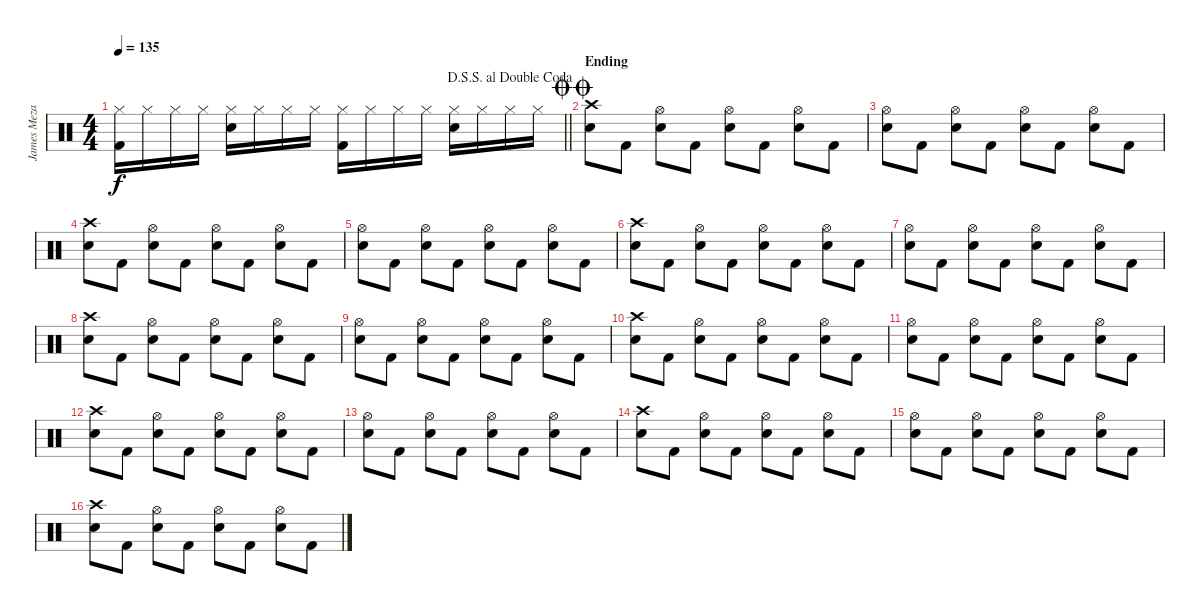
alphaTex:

\track ("James Meza - Drums" "James Meza") {instrument percussion}
\staff {score}
\articulation defaults
\ts (4 4)
\jump dalsegnosegnoaldoublecoda
\tempo 135
\clef neutral
\barLineRight lightlight
\ks c
("Hi-Hat (closed)" "Kick (hit) 2").16{dy f} "Hi-Hat (closed)".16 "Hi-Hat (closed)".16 "Hi-Hat (closed)".16 ("Hi-Hat (closed)" "Electric Snare (hit)").16 "Hi-Hat (closed)".16 "Hi-Hat (closed)".16 "Hi-Hat (closed)".16 ("Hi-Hat (closed)" "Kick (hit) 2").16 "Hi-Hat (closed)".16 "Hi-Hat (closed)".16 "Hi-Hat (closed)".16 ("Hi-Hat (closed)" "Electric Snare (hit)").16 "Hi-Hat (closed)".16 "Hi-Hat (closed)".16 "Hi-Hat (closed)".16 |
\section ("" "Ending")
\jump doublecoda
("Crash high (hit)" "Electric Snare (hit)").8 "Kick (hit) 2".8 ("Hi-Hat (open)" "Electric Snare (hit)").8 "Kick (hit) 2".8 ("Hi-Hat (open)" "Electric Snare (hit)").8 "Kick (hit) 2".8 ("Hi-Hat (open)" "Electric Snare (hit)").8 "Kick (hit) 2".8 |
("Hi-Hat (open)" "Electric Snare (hit)").8 "Kick (hit) 2".8 ("Hi-Hat (open)" "Electric Snare (hit)").8 "Kick (hit) 2".8 ("Hi-Hat (open)" "Electric Snare (hit)").8 "Kick (hit) 2".8 ("Hi-Hat (open)" "Electric Snare (hit)").8 "Kick (hit) 2".8 |
("Crash high (hit)" "Electric Snare (hit)").8 "Kick (hit) 2".8 ("Hi-Hat (open)" "Electric Snare (hit)").8 "Kick (hit) 2".8 ("Hi-Hat (open)" "Electric Snare (hit)").8 "Kick (hit) 2".8 ("Hi-Hat (open)" "Electric Snare (hit)").8 "Kick (hit) 2".8 |
("Hi-Hat (open)" "Electric Snare (hit)").8 "Kick (hit) 2".8 ("Hi-Hat (open)" "Electric Snare (hit)").8 "Kick (hit) 2".8 ("Hi-Hat (open)" "Electric Snare (hit)").8 "Kick (hit) 2".8 ("Hi-Hat (open)" "Electric Snare (hit)").8 "Kick (hit) 2".8 |
("Crash high (hit)" "Electric Snare (hit)").8 "Kick (hit) 2".8 ("Hi-Hat (open)" "Electric Snare (hit)").8 "Kick (hit) 2".8 ("Hi-Hat (open)" "Electric Snare (hit)").8 "Kick (hit) 2".8 ("Hi-Hat (open)" "Electric Snare (hit)").8 "Kick (hit) 2".8 |
("Hi-Hat (open)" "Electric Snare (hit)").8 "Kick (hit) 2".8 ("Hi-Hat (open)" "Electric Snare (hit)").8 "Kick (hit) 2".8 ("Hi-Hat (open)" "Electric Snare (hit)").8 "Kick (hit) 2".8 ("Hi-Hat (open)" "Electric Snare (hit)").8 "Kick (hit) 2".8 |
("Crash high (hit)" "Electric Snare (hit)").8 "Kick (hit) 2".8 ("Hi-Hat (open)" "Electric Snare (hit)").8 "Kick (hit) 2".8 ("Hi-Hat (open)" "Electric Snare (hit)").8 "Kick (hit) 2".8 ("Hi-Hat (open)" "Electric Snare (hit)").8 "Kick (hit) 2".8 |
("Hi-Hat (open)" "Electric Snare (hit)").8 "Kick (hit) 2".8 ("Hi-Hat (open)" "Electric Snare (hit)").8 "Kick (hit) 2".8 ("Hi-Hat (open)" "Electric Snare (hit)").8 "Kick (hit) 2".8 ("Hi-Hat (open)" "Electric Snare (hit)").8 "Kick (hit) 2".8 |
("Crash high (hit)" "Electric Snare (hit)").8 "Kick (hit) 2".8 ("Hi-Hat (open)" "Electric Snare (hit)").8 "Kick (hit) 2".8 ("Hi-Hat (open)" "Electric Snare (hit)").8 "Kick (hit) 2".8 ("Hi-Hat (open)" "Electric Snare (hit)").8 "Kick (hit) 2".8 |
("Hi-Hat (open)" "Electric Snare (hit)").8 "Kick (hit) 2".8 ("Hi-Hat (open)" "Electric Snare (hit)").8 "Kick (hit) 2".8 ("Hi-Hat (open)" "Electric Snare (hit)").8 "Kick (hit) 2".8 ("Hi-Hat (open)" "Electric Snare (hit)").8 "Kick (hit) 2".8 |
("Crash high (hit)" "Electric Snare (hit)").8 "Kick (hit) 2".8 ("Hi-Hat (open)" "Electric Snare (hit)").8 "Kick (hit) 2".8 ("Hi-Hat (open)" "Electric Snare (hit)").8 "Kick (hit) 2".8 ("Hi-Hat (open)" "Electric Snare (hit)").8 "Kick (hit) 2".8 |
("Hi-Hat (open)" "Electric Snare (hit)").8 "Kick (hit) 2".8 ("Hi-Hat (open)" "Electric Snare (hit)").8 "Kick (hit) 2".8 ("Hi-Hat (open)" "Electric Snare (hit)").8 "Kick (hit) 2".8 ("Hi-Hat (open)" "Electric Snare (hit)").8 "Kick (hit) 2".8 |
("Crash high (hit)" "Electric Snare (hit)").8 "Kick (hit) 2".8 ("Hi-Hat (open)" "Electric Snare (hit)").8 "Kick (hit) 2".8 ("Hi-Hat (open)" "Electric Snare (hit)").8 "Kick (hit) 2".8 ("Hi-Hat (open)" "Electric Snare (hit)").8 "Kick (hit) 2".8 |
("Hi-Hat (open)" "Electric Snare (hit)").8 "Kick (hit) 2".8 ("Hi-Hat (open)" "Electric Snare (hit)").8 "Kick (hit) 2".8 ("Hi-Hat (open)" "Electric Snare (hit)").8 "Kick (hit) 2".8 ("Hi-Hat (open)" "Electric Snare (hit)").8 "Kick (hit) 2".8 |
("Crash high (hit)" "Electric Snare (hit)").8 "Kick (hit) 2".8 ("Hi-Hat (open)" "Electric Snare (hit)").8 "Kick (hit) 2".8 ("Hi-Hat (open)" "Electric Snare (hit)").8 "Kick (hit) 2".8 ("Hi-Hat (open)" "Electric Snare (hit)").8 "Kick (hit) 2".8
